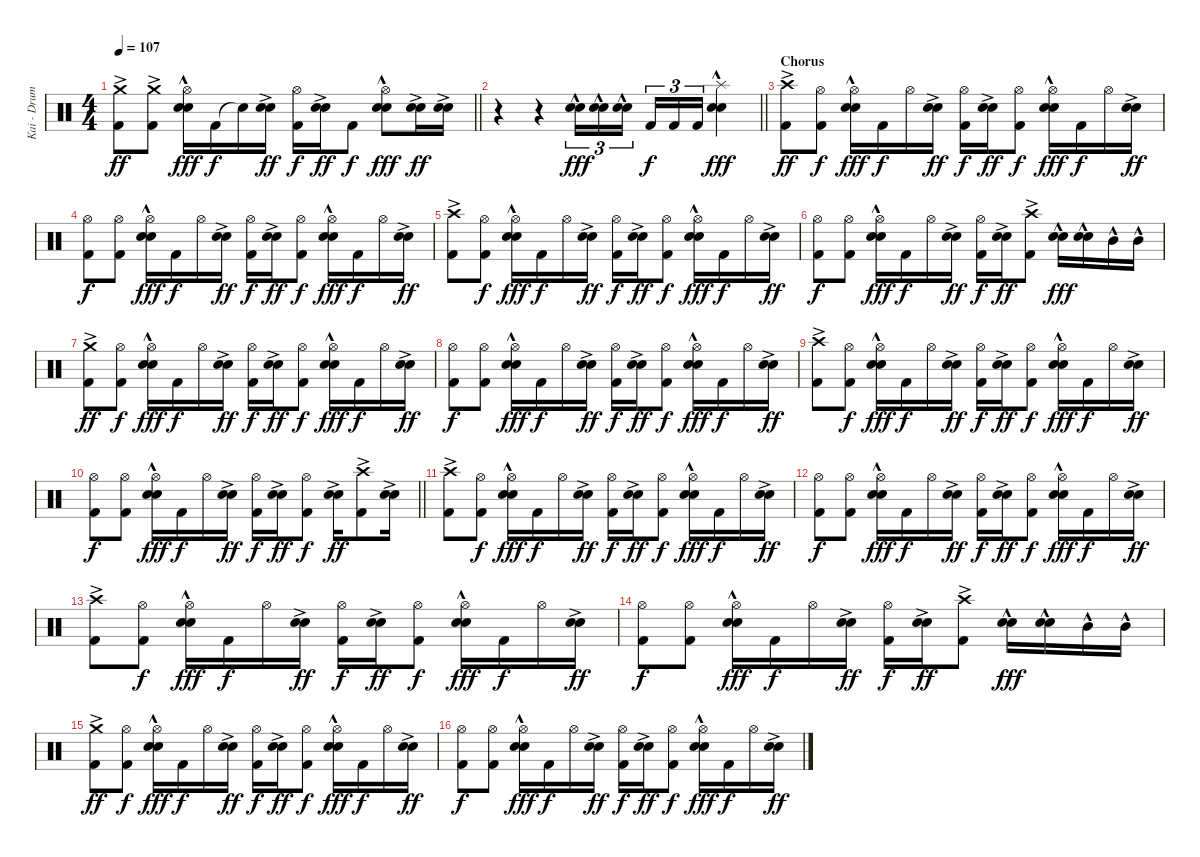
\track ("Kai - Drums" "Kai - Drum") {instrument percussion}
\staff {score}
\articulation defaults
\ts (4 4)
\tempo 107
\clef neutral
\barLineRight lightlight
\ks c
("Crash medium (hit)"{ac} "Kick (hit) 2").8{dy ff} ("Crash medium (hit)"{ac} "Kick (hit) 2").8 ("Hi-Hat (open)" "Electric Snare (hit)"{hac} "Snare (hit) 2"{hac}).16{dy fff} "Kick (hit) 2".16{dy f} "Snare (hit)"{t}.16 ("Electric Snare (hit)"{ac} "Snare (hit) 2"{ac}).16{dy ff} ("Hi-Hat (open)" "Kick (hit) 2").16{dy f} ("Electric Snare (hit)"{ac} "Snare (hit) 2"{ac}).16{dy ff} "Kick (hit) 2".8{dy f} ("Hi-Hat (open)" "Electric Snare (hit)"{hac} "Snare (hit) 2"{hac}).8{dy fff} ("Electric Snare (hit)"{ac} "Snare (hit) 2"{ac}).16{dy ff} ("Electric Snare (hit)"{ac} "Snare (hit) 2"{ac}).16 |
\barLineRight lightlight
r.4 r.4 ("Electric Snare (hit)"{hac} "Snare (hit) 2"{hac}).16{tu (3 2) dy fff} ("Electric Snare (hit)"{hac} "Snare (hit) 2"{hac}).16{tu (3 2)} ("Electric Snare (hit)"{hac} "Snare (hit) 2"{hac}).16{tu (3 2) beam splitsecondary} "Kick (hit) 2".16{tu (3 2) dy f} "Kick (hit) 2".16{tu (3 2)} "Kick (hit) 2".16{tu (3 2)} ("Splash (hit)"{hac} "Electric Snare (hit)"{hac} "Snare (hit) 2"{hac}).4{dy fff} |
\section ("" "Chorus")
("Crash high (hit)"{ac} "Kick (hit) 2").8{dy ff} ("Hi-Hat (open)" "Kick (hit) 2").8{dy f} ("Hi-Hat (open)" "Electric Snare (hit)"{hac} "Snare (hit) 2"{hac}).16{dy fff} "Kick (hit) 2".16{dy f} "Hi-Hat (open)".16 ("Electric Snare (hit)"{ac} "Snare (hit) 2"{ac}).16{dy ff} ("Hi-Hat (open)" "Kick (hit) 2").16{dy f} ("Electric Snare (hit)"{ac} "Snare (hit) 2"{ac}).16{dy ff} ("Hi-Hat (open)" "Kick (hit) 2").8{dy f} ("Hi-Hat (open)" "Electric Snare (hit)"{hac} "Snare (hit) 2"{hac}).16{dy fff} "Kick (hit) 2".16{dy f} "Hi-Hat (open)".16 ("Electric Snare (hit)"{ac} "Snare (hit) 2"{ac}).16{dy ff} |
("Hi-Hat (open)" "Kick (hit) 2").8{dy f} ("Hi-Hat (open)" "Kick (hit) 2").8 ("Hi-Hat (open)" "Electric Snare (hit)"{hac} "Snare (hit) 2"{hac}).16{dy fff} "Kick (hit) 2".16{dy f} "Hi-Hat (open)".16 ("Electric Snare (hit)"{ac} "Snare (hit) 2"{ac}).16{dy ff} ("Hi-Hat (open)" "Kick (hit) 2").16{dy f} ("Electric Snare (hit)"{ac} "Snare (hit) 2"{ac}).16{dy ff} ("Hi-Hat (open)" "Kick (hit) 2").8{dy f} ("Hi-Hat (open)" "Electric Snare (hit)"{hac} "Snare (hit) 2"{hac}).16{dy fff} "Kick (hit) 2".16{dy f} "Hi-Hat (open)".16 ("Electric Snare (hit)"{ac} "Snare (hit) 2"{ac}).16{dy ff} |
("Crash high (hit)"{ac} "Kick (hit) 2").8 ("Hi-Hat (open)" "Kick (hit) 2").8{dy f} ("Hi-Hat (open)" "Electric Snare (hit)"{hac} "Snare (hit) 2"{hac}).16{dy fff} "Kick (hit) 2".16{dy f} "Hi-Hat (open)".16 ("Electric Snare (hit)"{ac} "Snare (hit) 2"{ac}).16{dy ff} ("Hi-Hat (open)" "Kick (hit) 2").16{dy f} ("Electric Snare (hit)"{ac} "Snare (hit) 2"{ac}).16{dy ff} ("Hi-Hat (open)" "Kick (hit) 2").8{dy f} ("Hi-Hat (open)" "Electric Snare (hit)"{hac} "Snare (hit) 2"{hac}).16{dy fff} "Kick (hit) 2".16{dy f} "Hi-Hat (open)".16 ("Electric Snare (hit)"{ac} "Snare (hit) 2"{ac}).16{dy ff} |
("Hi-Hat (open)" "Kick (hit) 2").8{dy f} ("Hi-Hat (open)" "Kick (hit) 2").8 ("Hi-Hat (open)" "Electric Snare (hit)"{hac} "Snare (hit) 2"{hac}).16{dy fff} "Kick (hit) 2".16{dy f} "Hi-Hat (open)".16 ("Electric Snare (hit)"{ac} "Snare (hit) 2"{ac}).16{dy ff} ("Hi-Hat (open)" "Kick (hit) 2").16{dy f} ("Electric Snare (hit)"{ac} "Snare (hit) 2"{ac}).16{dy ff} ("Crash high (hit)"{ac} "Kick (hit) 2").8 ("Electric Snare (hit)"{hac} "Snare (hit) 2").16{dy fff} ("Electric Snare (hit)"{hac} "Snare (hit) 2").16 "Mid Tom (hit)"{hac}.16 "Mid Tom (hit)"{hac}.16 |
("Crash medium (hit)"{ac} "Kick (hit) 2").8{dy ff} ("Hi-Hat (open)" "Kick (hit) 2").8{dy f} ("Hi-Hat (open)" "Electric Snare (hit)"{hac} "Snare (hit) 2"{hac}).16{dy fff} "Kick (hit) 2".16{dy f} "Hi-Hat (open)".16 ("Electric Snare (hit)"{ac} "Snare (hit) 2"{ac}).16{dy ff} ("Hi-Hat (open)" "Kick (hit) 2").16{dy f} ("Electric Snare (hit)"{ac} "Snare (hit) 2"{ac}).16{dy ff} ("Hi-Hat (open)" "Kick (hit) 2").8{dy f} ("Hi-Hat (open)" "Electric Snare (hit)"{hac} "Snare (hit) 2"{hac}).16{dy fff} "Kick (hit) 2".16{dy f} "Hi-Hat (open)".16 ("Electric Snare (hit)"{ac} "Snare (hit) 2"{ac}).16{dy ff} |
("Hi-Hat (open)" "Kick (hit) 2").8{dy f} ("Hi-Hat (open)" "Kick (hit) 2").8 ("Hi-Hat (open)" "Electric Snare (hit)"{hac} "Snare (hit) 2"{hac}).16{dy fff} "Kick (hit) 2".16{dy f} "Hi-Hat (open)".16 ("Electric Snare (hit)"{ac} "Snare (hit) 2"{ac}).16{dy ff} ("Hi-Hat (open)" "Kick (hit) 2").16{dy f} ("Electric Snare (hit)"{ac} "Snare (hit) 2"{ac}).16{dy ff} ("Hi-Hat (open)" "Kick (hit) 2").8{dy f} ("Hi-Hat (open)" "Electric Snare (hit)"{hac} "Snare (hit) 2"{hac}).16{dy fff} "Kick (hit) 2".16{dy f} "Hi-Hat (open)".16 ("Electric Snare (hit)"{ac} "Snare (hit) 2"{ac}).16{dy ff} |
("Crash high (hit)"{ac} "Kick (hit) 2").8 ("Hi-Hat (open)" "Kick (hit) 2").8{dy f} ("Hi-Hat (open)" "Electric Snare (hit)"{hac} "Snare (hit) 2"{hac}).16{dy fff} "Kick (hit) 2".16{dy f} "Hi-Hat (open)".16 ("Electric Snare (hit)"{ac} "Snare (hit) 2"{ac}).16{dy ff} ("Hi-Hat (open)" "Kick (hit) 2").16{dy f} ("Electric Snare (hit)"{ac} "Snare (hit) 2"{ac}).16{dy ff} ("Hi-Hat (open)" "Kick (hit) 2").8{dy f} ("Hi-Hat (open)" "Electric Snare (hit)"{hac} "Snare (hit) 2"{hac}).16{dy fff} "Kick (hit) 2".16{dy f} "Hi-Hat (open)".16 ("Electric Snare (hit)"{ac} "Snare (hit) 2"{ac}).16{dy ff} |
\barLineRight lightlight
("Hi-Hat (open)" "Kick (hit) 2").8{dy f} ("Hi-Hat (open)" "Kick (hit) 2").8 ("Hi-Hat (open)" "Electric Snare (hit)"{hac} "Snare (hit) 2"{hac}).16{dy fff} "Kick (hit) 2".16{dy f} "Hi-Hat (open)".16 ("Electric Snare (hit)"{ac} "Snare (hit) 2"{ac}).16{dy ff} ("Hi-Hat (open)" "Kick (hit) 2").16{dy f} ("Electric Snare (hit)"{ac} "Snare (hit) 2"{ac}).16{dy ff} ("Hi-Hat (open)" "Kick (hit) 2").8{dy f} ("Electric Snare (hit)"{ac} "Snare (hit) 2"{ac}).16{dy ff} ("Crash high (hit)"{ac} "Kick (hit) 2").8 ("Electric Snare (hit)"{ac} "Snare (hit) 2"{ac}).16 |
\section ("" "")
("Crash high (hit)"{ac} "Kick (hit) 2").8 ("Hi-Hat (open)" "Kick (hit) 2").8{dy f} ("Hi-Hat (open)" "Electric Snare (hit)"{hac} "Snare (hit) 2"{hac}).16{dy fff} "Kick (hit) 2".16{dy f} "Hi-Hat (open)".16 ("Electric Snare (hit)"{ac} "Snare (hit) 2"{ac}).16{dy ff} ("Hi-Hat (open)" "Kick (hit) 2").16{dy f} ("Electric Snare (hit)"{ac} "Snare (hit) 2"{ac}).16{dy ff} ("Hi-Hat (open)" "Kick (hit) 2").8{dy f} ("Hi-Hat (open)" "Electric Snare (hit)"{hac} "Snare (hit) 2"{hac}).16{dy fff} "Kick (hit) 2".16{dy f} "Hi-Hat (open)".16 ("Electric Snare (hit)"{ac} "Snare (hit) 2"{ac}).16{dy ff} |
("Hi-Hat (open)" "Kick (hit) 2").8{dy f} ("Hi-Hat (open)" "Kick (hit) 2").8 ("Hi-Hat (open)" "Electric Snare (hit)"{hac} "Snare (hit) 2"{hac}).16{dy fff} "Kick (hit) 2".16{dy f} "Hi-Hat (open)".16 ("Electric Snare (hit)"{ac} "Snare (hit) 2"{ac}).16{dy ff} ("Hi-Hat (open)" "Kick (hit) 2").16{dy f} ("Electric Snare (hit)"{ac} "Snare (hit) 2"{ac}).16{dy ff} ("Hi-Hat (open)" "Kick (hit) 2").8{dy f} ("Hi-Hat (open)" "Electric Snare (hit)"{hac} "Snare (hit) 2"{hac}).16{dy fff} "Kick (hit) 2".16{dy f} "Hi-Hat (open)".16 ("Electric Snare (hit)"{ac} "Snare (hit) 2"{ac}).16{dy ff} |
("Crash high (hit)"{ac} "Kick (hit) 2").8 ("Hi-Hat (open)" "Kick (hit) 2").8{dy f} ("Hi-Hat (open)" "Electric Snare (hit)"{hac} "Snare (hit) 2"{hac}).16{dy fff} "Kick (hit) 2".16{dy f} "Hi-Hat (open)".16 ("Electric Snare (hit)"{ac} "Snare (hit) 2"{ac}).16{dy ff} ("Hi-Hat (open)" "Kick (hit) 2").16{dy f} ("Electric Snare (hit)"{ac} "Snare (hit) 2"{ac}).16{dy ff} ("Hi-Hat (open)" "Kick (hit) 2").8{dy f} ("Hi-Hat (open)" "Electric Snare (hit)"{hac} "Snare (hit) 2"{hac}).16{dy fff} "Kick (hit) 2".16{dy f} "Hi-Hat (open)".16 ("Electric Snare (hit)"{ac} "Snare (hit) 2"{ac}).16{dy ff} |
("Hi-Hat (open)" "Kick (hit) 2").8{dy f} ("Hi-Hat (open)" "Kick (hit) 2").8 ("Hi-Hat (open)" "Electric Snare (hit)"{hac} "Snare (hit) 2"{hac}).16{dy fff} "Kick (hit) 2".16{dy f} "Hi-Hat (open)".16 ("Electric Snare (hit)"{ac} "Snare (hit) 2"{ac}).16{dy ff} ("Hi-Hat (open)" "Kick (hit) 2").16{dy f} ("Electric Snare (hit)"{ac} "Snare (hit) 2"{ac}).16{dy ff} ("Crash high (hit)"{ac} "Kick (hit) 2").8 ("Electric Snare (hit)"{hac} "Snare (hit) 2").16{dy fff} ("Electric Snare (hit)"{hac} "Snare (hit) 2").16 "Mid Tom (hit)"{hac}.16 "Mid Tom (hit)"{hac}.16 |
("Crash medium (hit)"{ac} "Kick (hit) 2").8{dy ff} ("Hi-Hat (open)" "Kick (hit) 2").8{dy f} ("Hi-Hat (open)" "Electric Snare (hit)"{hac} "Snare (hit) 2"{hac}).16{dy fff} "Kick (hit) 2".16{dy f} "Hi-Hat (open)".16 ("Electric Snare (hit)"{ac} "Snare (hit) 2"{ac}).16{dy ff} ("Hi-Hat (open)" "Kick (hit) 2").16{dy f} ("Electric Snare (hit)"{ac} "Snare (hit) 2"{ac}).16{dy ff} ("Hi-Hat (open)" "Kick (hit) 2").8{dy f} ("Hi-Hat (open)" "Electric Snare (hit)"{hac} "Snare (hit) 2"{hac}).16{dy fff} "Kick (hit) 2".16{dy f} "Hi-Hat (open)".16 ("Electric Snare (hit)"{ac} "Snare (hit) 2"{ac}).16{dy ff} |
("Hi-Hat (open)" "Kick (hit) 2").8{dy f} ("Hi-Hat (open)" "Kick (hit) 2").8 ("Hi-Hat (open)" "Electric Snare (hit)"{hac} "Snare (hit) 2"{hac}).16{dy fff} "Kick (hit) 2".16{dy f} "Hi-Hat (open)".16 ("Electric Snare (hit)"{ac} "Snare (hit) 2"{ac}).16{dy ff} ("Hi-Hat (open)" "Kick (hit) 2").16{dy f} ("Electric Snare (hit)"{ac} "Snare (hit) 2"{ac}).16{dy ff} ("Hi-Hat (open)" "Kick (hit) 2").8{dy f} ("Hi-Hat (open)" "Electric Snare (hit)"{hac} "Snare (hit) 2"{hac}).16{dy fff} "Kick (hit) 2".16{dy f} "Hi-Hat (open)".16 ("Electric Snare (hit)"{ac} "Snare (hit) 2"{ac}).16{dy ff}
